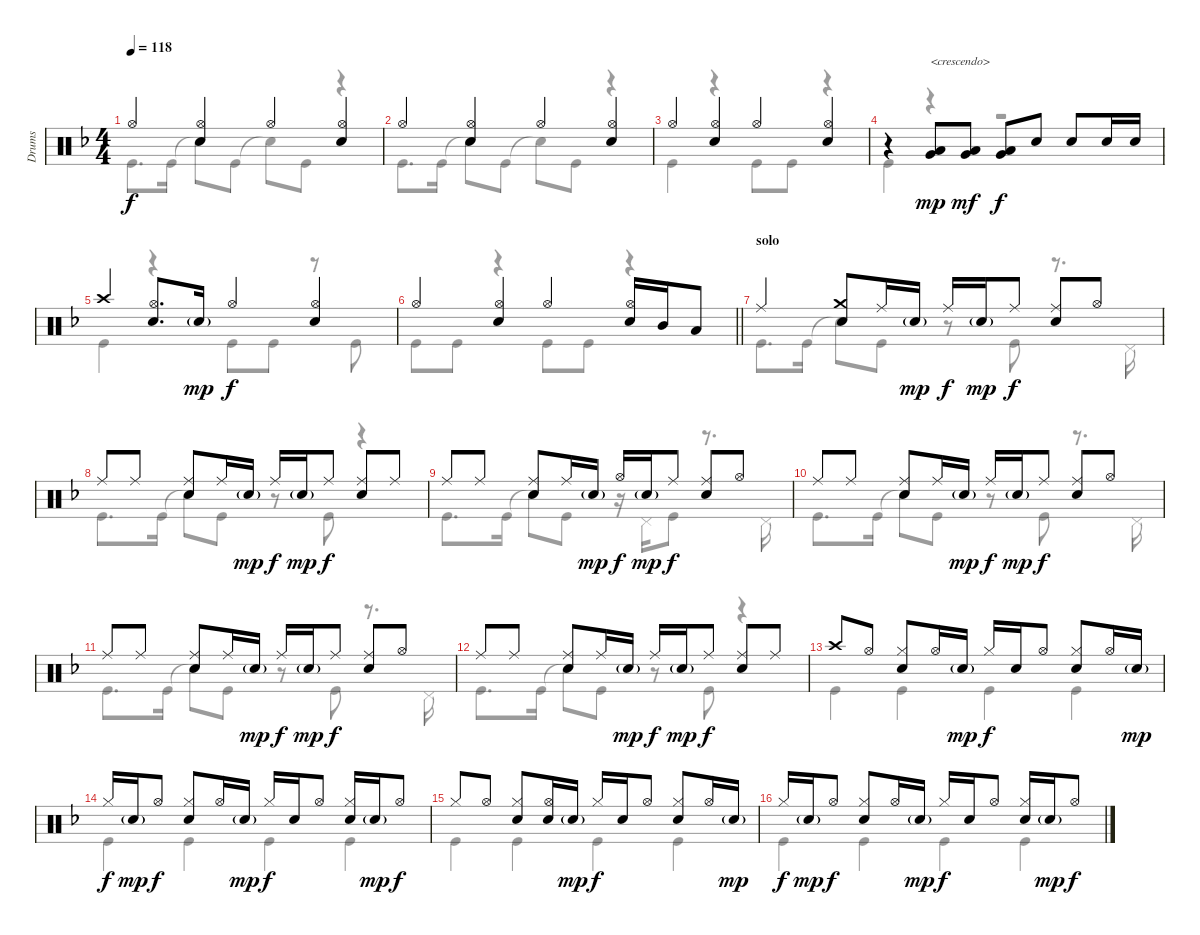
\track ("Drums" "Drums") {instrument percussion}
\staff {score}
\articulation defaults
\voice
\ts (4 4)
\tempo 118
\clef neutral
\ks f "Hi-Hat (open)".4{dy f}
("Hi-Hat (open)" "Snare (hit) 2").4 "Hi-Hat (open)".4 ("Hi-Hat (open)" "Snare (hit) 2").4 |
"Hi-Hat (open)".4 ("Hi-Hat (open)" "Snare (hit) 2").4 "Hi-Hat (open)".4 ("Hi-Hat (open)" "Snare (hit) 2").4 |
"Hi-Hat (open)".4 ("Hi-Hat (open)" "Snare (hit) 2").4 "Hi-Hat (open)".4 ("Hi-Hat (open)" "Snare (hit) 2").4 |
r.4 ("Very Low Tom (hit)" "Low Tom (hit)").8{txt "<crescendo>" dy mp} ("Very Low Tom (hit)" "Low Tom (hit)").8{dy mf} ("Very Low Tom (hit)" "Low Tom (hit)").8{dy f} "Snare (hit) 2".8 "Snare (hit) 2".8 "Snare (hit) 2".16 "Snare (hit) 2".16 |
"Crash high (hit)".4 ("Hi-Hat (open)" "Snare (hit) 2").8{d} "Snare (hit) 2"{g}.16{dy mp} "Hi-Hat (open)".4{dy f} ("Hi-Hat (open)" "Snare (hit) 2").4 |
\barLineRight lightlight "Hi-Hat (open)".4
("Hi-Hat (open)" "Snare (hit) 2").4 "Hi-Hat (open)".4 ("Hi-Hat (open)" "Snare (hit) 2").16 "Mid Tom (hit)".16 "Low Tom (hit)".8 |
\section ("" "solo")
"Ride (middle)".4 ("Crash medium (hit)" "Snare (hit) 2").8 "Ride (middle)".16 "Snare (hit) 2"{g}.16{dy mp} "Ride (middle)".16{dy f} "Snare (hit) 2"{g}.16{dy mp} "Ride (middle)".8{dy f} ("Ride (middle)" "Snare (hit) 2").8 "Hi-Hat (open)".8 |
"Ride (middle)".8 "Ride (middle)".8 ("Ride (middle)" "Snare (hit) 2").8 "Ride (middle)".16 "Snare (hit) 2"{g}.16{dy mp} "Ride (middle)".16{dy f} "Snare (hit) 2"{g}.16{dy mp} "Ride (middle)".8{dy f} ("Ride (middle)" "Snare (hit) 2").8 "Ride (middle)".8 |
"Ride (middle)".8 "Ride (middle)".8 ("Ride (middle)" "Snare (hit) 2").8 "Ride (middle)".16 "Snare (hit) 2"{g}.16{dy mp} "Hi-Hat (open)".16{dy f} "Snare (hit) 2"{g}.16{dy mp} "Ride (middle)".8{dy f} ("Ride (middle)" "Snare (hit) 2").8 "Hi-Hat (open)".8 |
"Ride (middle)".8 "Ride (middle)".8 ("Ride (middle)" "Snare (hit) 2").8 "Ride (middle)".16 "Snare (hit) 2"{g}.16{dy mp} "Ride (middle)".16{dy f} "Snare (hit) 2"{g}.16{dy mp} "Ride (middle)".8{dy f} ("Ride (middle)" "Snare (hit) 2").8 "Hi-Hat (open)".8 |
"Ride (middle)".8 "Ride (middle)".8 ("Ride (middle)" "Snare (hit) 2").8 "Ride (middle)".16 "Snare (hit) 2"{g}.16{dy mp} "Ride (middle)".16{dy f} "Snare (hit) 2"{g}.16{dy mp} "Ride (middle)".8{dy f} ("Ride (middle)" "Snare (hit) 2").8 "Hi-Hat (open)".8 |
"Ride (middle)".8 "Ride (middle)".8 ("Ride (middle)" "Snare (hit) 2").8 "Ride (middle)".16 "Snare (hit) 2"{g}.16{dy mp} "Ride (middle)".16{dy f} "Snare (hit) 2"{g}.16{dy mp} "Ride (middle)".8{dy f} ("Ride (middle)" "Snare (hit) 2").8 "Ride (middle)".8 |
"Crash high (hit)".8 "Hi-Hat (open)".8 ("Hi-Hat (closed)" "Snare (hit) 2").8 "Hi-Hat (open)".16 "Snare (hit) 2"{g}.16{dy mp} "Hi-Hat (closed)".16{dy f} "Snare (hit) 2".16 "Hi-Hat (open)".8 ("Hi-Hat (closed)" "Snare (hit) 2").8 "Hi-Hat (open)".16 "Snare (hit) 2"{g}.16{dy mp} |
"Hi-Hat (closed)".16{dy f} "Snare (hit) 2"{g}.16{dy mp} "Hi-Hat (open)".8{dy f} ("Hi-Hat (closed)" "Snare (hit) 2").8 "Hi-Hat (open)".16 "Snare (hit) 2"{g}.16{dy mp} "Hi-Hat (closed)".16{dy f} "Snare (hit) 2".16 "Hi-Hat (open)".8 ("Hi-Hat (closed)" "Snare (hit) 2").16 "Snare (hit) 2"{g}.16{dy mp} "Hi-Hat (open)".8{dy f} |
"Hi-Hat (closed)".8 "Hi-Hat (open)".8 ("Hi-Hat (closed)" "Snare (hit) 2").8 ("Hi-Hat (open)" "Snare (hit) 2").16 "Snare (hit) 2"{g}.16{dy mp} "Hi-Hat (closed)".16{dy f} "Snare (hit) 2".16 "Hi-Hat (open)".8 ("Hi-Hat (closed)" "Snare (hit) 2").8 "Hi-Hat (open)".16 "Snare (hit) 2"{g}.16{dy mp} |
"Hi-Hat (closed)".16{dy f} "Snare (hit) 2"{g}.16{dy mp} "Hi-Hat (open)".8{dy f} ("Hi-Hat (closed)" "Snare (hit) 2").8 "Hi-Hat (open)".16 "Snare (hit) 2"{g}.16{dy mp} "Hi-Hat (closed)".16{dy f} "Snare (hit) 2".16 "Hi-Hat (open)".8 ("Hi-Hat (closed)" "Snare (hit) 2").16 "Snare (hit) 2"{g}.16{dy mp} "Hi-Hat (open)".8{dy f}
\voice
\clef neutral
\ottava regular
\simile none
\ks f "Kick (hit)".8{d dy f} "Kick (hit)".16 "Snare (hit)"{t}.8 "Kick (hit)".8 "Snare (hit)"{t}.8 "Kick (hit)".8
r.4 |
"Kick (hit)".8{d} "Kick (hit)".16 "Snare (hit)"{t}.8 "Kick (hit)".8 "Snare (hit)"{t}.8 "Kick (hit)".8 r.4 |
"Kick (hit)".4 r.4 "Kick (hit)".8 "Kick (hit)".8 r.4 |
"Kick (hit)".4 r.4 r.2 |
"Kick (hit)".4 r.4 "Kick (hit)".8 "Kick (hit)".8 r.8 "Kick (hit)".8 |
\barLineRight lightlight "Kick (hit)".8 "Kick (hit)".8
r.4 "Kick (hit)".8 "Kick (hit)".8 r.4 |
"Kick (hit)".8{d} "Kick (hit)".16 "Snare (hit)"{t}.8 "Kick (hit)".8 r.8 "Kick (hit)".8 r.8{d} "Pedal Hi-Hat (hit)".16 |
"Kick (hit)".8{d} "Kick (hit)".16 "Snare (hit)"{t}.8 "Kick (hit)".8 r.8 "Kick (hit)".8 r.4 |
"Kick (hit)".8{d} "Kick (hit)".16 "Snare (hit)"{t}.8 "Kick (hit)".8 r.16 "Pedal Hi-Hat (hit)".16 "Kick (hit)".8 r.8{d} "Pedal Hi-Hat (hit)".16 |
"Kick (hit)".8{d} "Kick (hit)".16 "Snare (hit)"{t}.8 "Kick (hit)".8 r.8 "Kick (hit)".8 r.8{d} "Pedal Hi-Hat (hit)".16 |
"Kick (hit)".8{d} "Kick (hit)".16 "Snare (hit)"{t}.8 "Kick (hit)".8 r.8 "Kick (hit)".8 r.8{d} "Pedal Hi-Hat (hit)".16 |
"Kick (hit)".8{d} "Kick (hit)".16 "Snare (hit)"{t}.8 "Kick (hit)".8 r.8 "Kick (hit)".8 r.4 |
"Kick (hit)".4 "Kick (hit)".4 "Kick (hit)".4 "Kick (hit)".4 |
"Kick (hit)".4 "Kick (hit)".4 "Kick (hit)".4 "Kick (hit)".4 |
"Kick (hit)".4 "Kick (hit)".4 "Kick (hit)".4 "Kick (hit)".4 |
"Kick (hit)".4 "Kick (hit)".4 "Kick (hit)".4 "Kick (hit)".4
